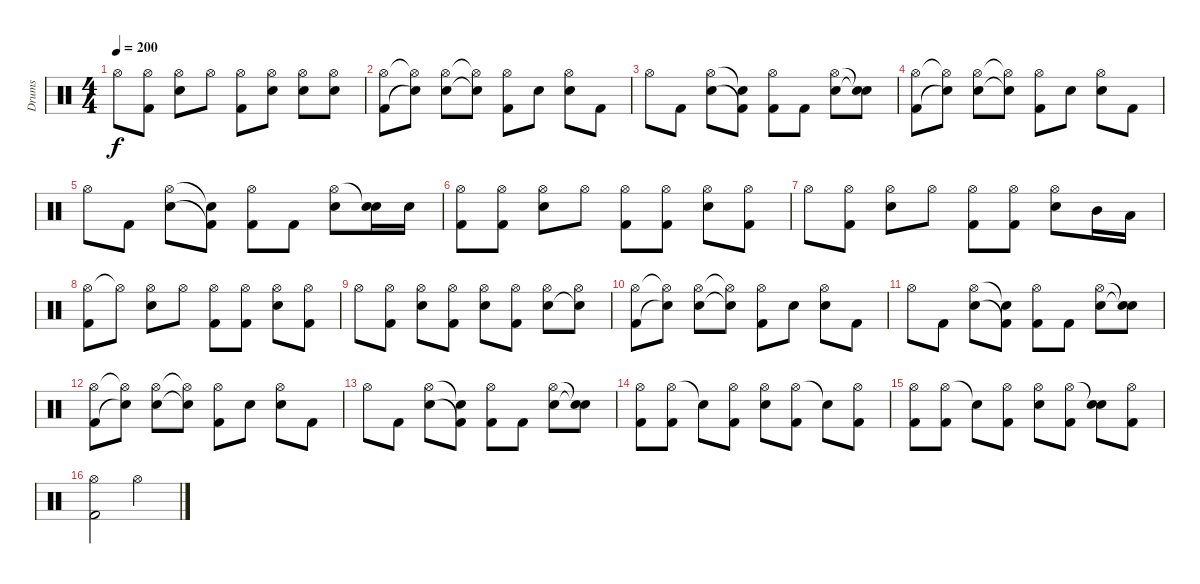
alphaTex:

\track ("Drums" "Drums") {instrument percussion}
\staff {score}
\articulation defaults
\ts (4 4)
\tempo 200
\clef neutral
\ks c "Hi-Hat (open)".8{dy f}
("Hi-Hat (open)" "Kick (hit) 2").8 ("Hi-Hat (open)" "Electric Snare (hit)").8 "Hi-Hat (open)".8 ("Hi-Hat (open)" "Kick (hit) 2").8 ("Hi-Hat (open)" "Electric Snare (hit)").8 ("Hi-Hat (open)" "Electric Snare (hit)").8 ("Hi-Hat (open)" "Electric Snare (hit)").8 |
("Hi-Hat (open)" "Kick (hit) 2").8 ("Hi-Hat (open)"{t} "Electric Snare (hit)"{t}).8 ("Hi-Hat (open)" "Electric Snare (hit)").8 ("Hi-Hat (open)"{t} "Electric Snare (hit)"{t}).8 ("Hi-Hat (open)" "Kick (hit) 2").8 "Electric Snare (hit)".8 ("Hi-Hat (open)" "Electric Snare (hit)").8 "Kick (hit) 2".8 |
"Hi-Hat (open)".8 "Kick (hit) 2".8 ("Hi-Hat (open)" "Electric Snare (hit)").8 ("Snare (hit)"{t} "Kick (hit) 2"{t}).8 ("Hi-Hat (open)" "Kick (hit) 2").8 "Kick (hit) 2".8 ("Hi-Hat (open)" "Electric Snare (hit)").8 ("Snare (hit)"{t} "Snare (hit)"{t}).8 |
("Hi-Hat (open)" "Kick (hit) 2").8 ("Hi-Hat (open)"{t} "Electric Snare (hit)"{t}).8 ("Hi-Hat (open)" "Electric Snare (hit)").8 ("Hi-Hat (open)"{t} "Electric Snare (hit)"{t}).8 ("Hi-Hat (open)" "Kick (hit) 2").8 "Electric Snare (hit)".8 ("Hi-Hat (open)" "Electric Snare (hit)").8 "Kick (hit) 2".8 |
"Hi-Hat (open)".8 "Kick (hit) 2".8 ("Hi-Hat (open)" "Electric Snare (hit)").8 ("Snare (hit)"{t} "Kick (hit) 2"{t}).8 ("Hi-Hat (open)" "Kick (hit) 2").8 "Kick (hit) 2".8 ("Hi-Hat (open)" "Electric Snare (hit)").8 ("Snare (hit)"{t} "Electric Snare (hit)").16 "Electric Snare (hit)".16 |
("Hi-Hat (open)" "Kick (hit) 2").8 ("Hi-Hat (open)" "Kick (hit) 2").8 ("Hi-Hat (open)" "Electric Snare (hit)").8 "Hi-Hat (open)".8 ("Hi-Hat (open)" "Kick (hit) 2").8 ("Hi-Hat (open)" "Kick (hit) 2").8 ("Hi-Hat (open)" "Electric Snare (hit)").8 ("Hi-Hat (open)" "Kick (hit) 2").8 |
"Hi-Hat (open)".8 ("Hi-Hat (open)" "Kick (hit) 2").8 ("Hi-Hat (open)" "Electric Snare (hit)").8 "Hi-Hat (open)".8 ("Hi-Hat (open)" "Kick (hit) 2").8 ("Hi-Hat (open)" "Kick (hit) 2").8 ("Hi-Hat (open)" "Electric Snare (hit)").8 "Mid Tom (hit)".16 "Low Tom (hit)".16 |
("Hi-Hat (open)" "Kick (hit) 2").8 "Hi-Hat (open)"{t}.8 ("Hi-Hat (open)" "Electric Snare (hit)").8 "Hi-Hat (open)".8 ("Hi-Hat (open)" "Kick (hit) 2").8 ("Hi-Hat (open)" "Kick (hit) 2").8 ("Hi-Hat (open)" "Electric Snare (hit)").8 ("Hi-Hat (open)" "Kick (hit) 2").8 |
"Hi-Hat (open)".8 ("Hi-Hat (open)" "Kick (hit) 2").8 ("Hi-Hat (open)" "Electric Snare (hit)").8 ("Hi-Hat (open)" "Kick (hit) 2").8 ("Hi-Hat (open)" "Electric Snare (hit)").8 ("Hi-Hat (open)" "Kick (hit) 2").8 ("Hi-Hat (open)" "Electric Snare (hit)").8 ("Hi-Hat (open)" "Snare (hit)"{t}).8 |
("Hi-Hat (open)" "Kick (hit) 2").8 ("Hi-Hat (open)"{t} "Electric Snare (hit)"{t}).8 ("Hi-Hat (open)" "Electric Snare (hit)").8 ("Hi-Hat (open)"{t} "Electric Snare (hit)"{t}).8 ("Hi-Hat (open)" "Kick (hit) 2").8 "Electric Snare (hit)".8 ("Hi-Hat (open)" "Electric Snare (hit)").8 "Kick (hit) 2".8 |
"Hi-Hat (open)".8 "Kick (hit) 2".8 ("Hi-Hat (open)" "Electric Snare (hit)").8 ("Snare (hit)"{t} "Kick (hit) 2"{t}).8 ("Hi-Hat (open)" "Kick (hit) 2").8 "Kick (hit) 2".8 ("Hi-Hat (open)" "Electric Snare (hit)").8 ("Snare (hit)"{t} "Snare (hit)"{t}).8 |
("Hi-Hat (open)" "Kick (hit) 2").8 ("Hi-Hat (open)"{t} "Electric Snare (hit)"{t}).8 ("Hi-Hat (open)" "Electric Snare (hit)").8 ("Hi-Hat (open)"{t} "Electric Snare (hit)"{t}).8 ("Hi-Hat (open)" "Kick (hit) 2").8 "Electric Snare (hit)".8 ("Hi-Hat (open)" "Electric Snare (hit)").8 "Kick (hit) 2".8 |
"Hi-Hat (open)".8 "Kick (hit) 2".8 ("Hi-Hat (open)" "Electric Snare (hit)").8 ("Snare (hit)"{t} "Kick (hit) 2"{t}).8 ("Hi-Hat (open)" "Kick (hit) 2").8 "Kick (hit) 2".8 ("Hi-Hat (open)" "Electric Snare (hit)").8 ("Snare (hit)"{t} "Snare (hit)"{t}).8 |
("Hi-Hat (open)" "Kick (hit) 2").8 ("Hi-Hat (open)" "Kick (hit) 2").8 "Snare (hit)"{t}.8 ("Hi-Hat (open)" "Kick (hit) 2").8 ("Hi-Hat (open)" "Electric Snare (hit)").8 ("Hi-Hat (open)" "Kick (hit) 2").8 "Snare (hit)"{t}.8 ("Hi-Hat (open)" "Kick (hit) 2").8 |
("Hi-Hat (open)" "Kick (hit) 2").8 ("Hi-Hat (open)" "Kick (hit) 2").8 "Snare (hit)"{t}.8 ("Hi-Hat (open)" "Kick (hit) 2").8 ("Hi-Hat (open)" "Electric Snare (hit)").8 ("Hi-Hat (open)" "Kick (hit) 2").8 ("Snare (hit)"{t} "Electric Snare (hit)").8 ("Hi-Hat (open)" "Kick (hit) 2").8 |
("Hi-Hat (open)" "Kick (hit) 2").2 "Hi-Hat (open)".2
